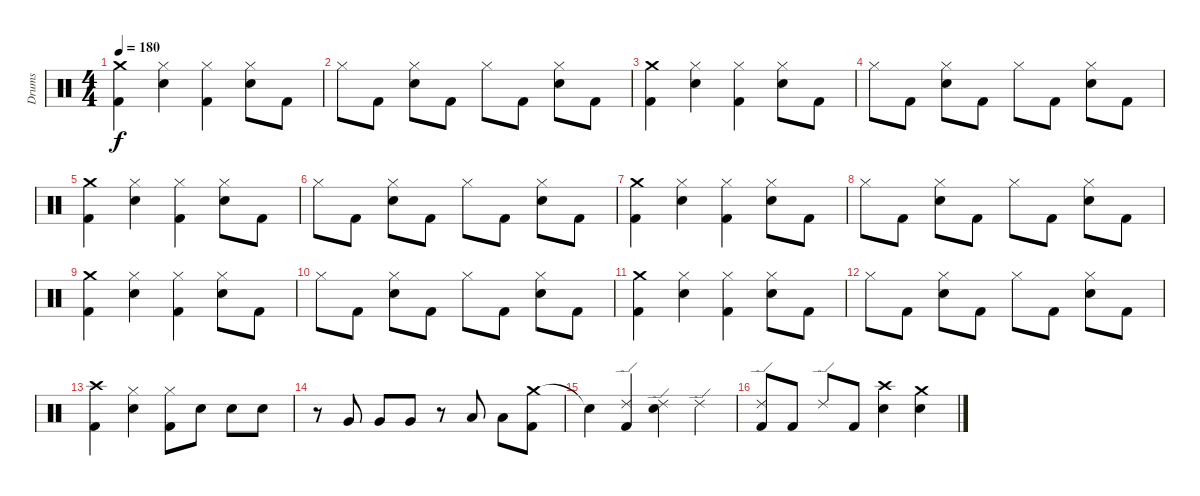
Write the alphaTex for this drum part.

\track ("Drums" "Drums") {instrument percussion}
\staff {score}
\articulation defaults
\ts (4 4)
\tempo 180
\clef neutral
\ks c
("Crash medium (hit)" "Kick (hit) 2").4{dy f} ("Hi-Hat (closed)" "Electric Snare (hit)").4 ("Hi-Hat (closed)" "Kick (hit) 2").4 ("Hi-Hat (closed)" "Electric Snare (hit)").8 "Kick (hit) 2".8 |
"Hi-Hat (closed)".8 "Kick (hit) 2".8 ("Hi-Hat (closed)" "Electric Snare (hit)").8 "Kick (hit) 2".8 "Hi-Hat (closed)".8 "Kick (hit) 2".8 ("Hi-Hat (closed)" "Electric Snare (hit)").8 "Kick (hit) 2".8 |
("Crash medium (hit)" "Kick (hit) 2").4 ("Hi-Hat (closed)" "Electric Snare (hit)").4 ("Hi-Hat (closed)" "Kick (hit) 2").4 ("Hi-Hat (closed)" "Electric Snare (hit)").8 "Kick (hit) 2".8 |
"Hi-Hat (closed)".8 "Kick (hit) 2".8 ("Hi-Hat (closed)" "Electric Snare (hit)").8 "Kick (hit) 2".8 "Hi-Hat (closed)".8 "Kick (hit) 2".8 ("Hi-Hat (closed)" "Electric Snare (hit)").8 "Kick (hit) 2".8 |
("Crash medium (hit)" "Kick (hit) 2").4 ("Hi-Hat (closed)" "Electric Snare (hit)").4 ("Hi-Hat (closed)" "Kick (hit) 2").4 ("Hi-Hat (closed)" "Electric Snare (hit)").8 "Kick (hit) 2".8 |
"Hi-Hat (closed)".8 "Kick (hit) 2".8 ("Hi-Hat (closed)" "Electric Snare (hit)").8 "Kick (hit) 2".8 "Hi-Hat (closed)".8 "Kick (hit) 2".8 ("Hi-Hat (closed)" "Electric Snare (hit)").8 "Kick (hit) 2".8 |
("Crash medium (hit)" "Kick (hit) 2").4 ("Hi-Hat (closed)" "Electric Snare (hit)").4 ("Hi-Hat (closed)" "Kick (hit) 2").4 ("Hi-Hat (closed)" "Electric Snare (hit)").8 "Kick (hit) 2".8 |
"Hi-Hat (closed)".8 "Kick (hit) 2".8 ("Hi-Hat (closed)" "Electric Snare (hit)").8 "Kick (hit) 2".8 "Hi-Hat (closed)".8 "Kick (hit) 2".8 ("Hi-Hat (closed)" "Electric Snare (hit)").8 "Kick (hit) 2".8 |
("Crash medium (hit)" "Kick (hit) 2").4 ("Hi-Hat (closed)" "Electric Snare (hit)").4 ("Hi-Hat (closed)" "Kick (hit) 2").4 ("Hi-Hat (closed)" "Electric Snare (hit)").8 "Kick (hit) 2".8 |
"Hi-Hat (closed)".8 "Kick (hit) 2".8 ("Hi-Hat (closed)" "Electric Snare (hit)").8 "Kick (hit) 2".8 "Hi-Hat (closed)".8 "Kick (hit) 2".8 ("Hi-Hat (closed)" "Electric Snare (hit)").8 "Kick (hit) 2".8 |
("Crash medium (hit)" "Kick (hit) 2").4 ("Hi-Hat (closed)" "Electric Snare (hit)").4 ("Hi-Hat (closed)" "Kick (hit) 2").4 ("Hi-Hat (closed)" "Electric Snare (hit)").8 "Kick (hit) 2".8 |
"Hi-Hat (closed)".8 "Kick (hit) 2".8 ("Hi-Hat (closed)" "Electric Snare (hit)").8 "Kick (hit) 2".8 "Hi-Hat (closed)".8 "Kick (hit) 2".8 ("Hi-Hat (closed)" "Electric Snare (hit)").8 "Kick (hit) 2".8 |
("Crash high (hit)" "Kick (hit) 2").4 ("Hi-Hat (closed)" "Electric Snare (hit)").4 ("Hi-Hat (closed)" "Kick (hit) 2").8 "Electric Snare (hit)".8 "Electric Snare (hit)".8 "Electric Snare (hit)".8 |
r.8 "Very Low Tom (hit)".8 "Very Low Tom (hit)".8 "Very Low Tom (hit)".8 r.8 "Low Floor Tom (hit)".8 "Low Floor Tom (hit)".8 ("Crash medium (hit)" "Kick (hit) 2").8 |
"Snare (hit)"{t}.4 ("Ride (edge) 2" "Kick (hit) 2").4 ("Ride (edge) 2" "Electric Snare (hit)").4 "Ride (edge) 2".4 |
("Ride (edge) 2" "Kick (hit) 2").8 "Kick (hit) 2".8 "Ride (edge) 2".8 "Kick (hit) 2".8 ("Crash high (hit)" "Electric Snare (hit)").4 ("Crash medium (hit)" "Electric Snare (hit)").4
